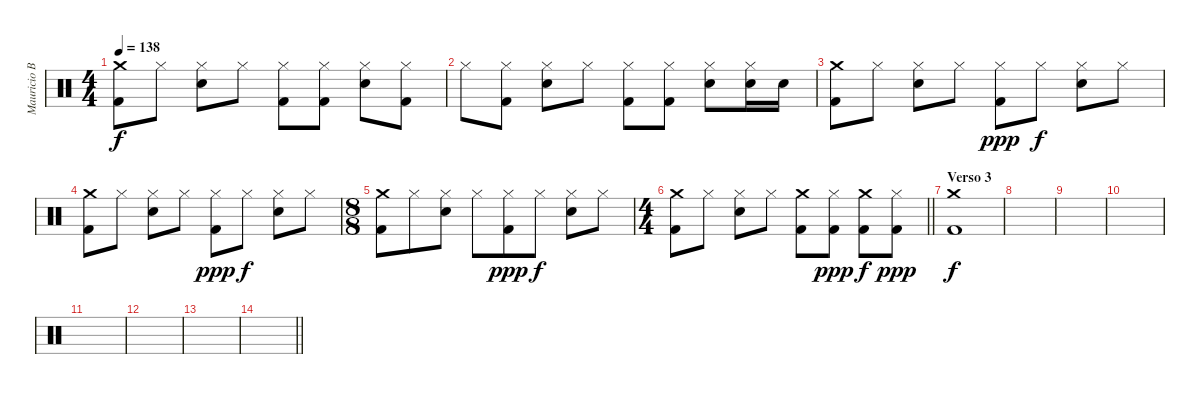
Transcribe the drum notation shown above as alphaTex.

\track ("Mauricio Basualto" "Mauricio B") {instrument percussion}
\staff {score}
\articulation defaults
\ts (4 4)
\tempo 138
\clef neutral
\ks c
("Crash medium (hit)" "Kick (hit) 2").8{dy f} "Hi-Hat (closed)".8 ("Hi-Hat (closed)" "Snare (hit) 2").8 "Hi-Hat (closed)".8 ("Hi-Hat (closed)" "Kick (hit) 2").8 ("Hi-Hat (closed)" "Kick (hit) 2").8 ("Hi-Hat (closed)" "Snare (hit) 2").8 ("Hi-Hat (closed)" "Kick (hit) 2").8 |
"Hi-Hat (closed)".8 ("Hi-Hat (closed)" "Kick (hit) 2").8 ("Hi-Hat (closed)" "Snare (hit) 2").8 "Hi-Hat (closed)".8 ("Hi-Hat (closed)" "Kick (hit) 2").8 ("Hi-Hat (closed)" "Kick (hit) 2").8 ("Hi-Hat (closed)" "Snare (hit) 2").8 ("Hi-Hat (closed)" "Snare (hit) 2").16 "Snare (hit) 2".16 |
("Crash medium (hit)" "Kick (hit) 2").8 "Hi-Hat (closed)".8 ("Hi-Hat (closed)" "Snare (hit) 2").8 "Hi-Hat (closed)".8 ("Hi-Hat (closed)" "Kick (hit) 2").8{dy ppp} "Hi-Hat (closed)".8{dy f} ("Hi-Hat (closed)" "Snare (hit) 2").8 "Hi-Hat (closed)".8 |
("Crash medium (hit)" "Kick (hit) 2").8 "Hi-Hat (closed)".8 ("Hi-Hat (closed)" "Snare (hit) 2").8 "Hi-Hat (closed)".8 ("Hi-Hat (closed)" "Kick (hit) 2").8{dy ppp} "Hi-Hat (closed)".8{dy f} ("Hi-Hat (closed)" "Snare (hit) 2").8 "Hi-Hat (closed)".8 |
\ts (8 8)
("Crash medium (hit)" "Kick (hit) 2").8 "Hi-Hat (closed)".8 ("Hi-Hat (closed)" "Snare (hit) 2").8 "Hi-Hat (closed)".8 ("Hi-Hat (closed)" "Kick (hit) 2").8{dy ppp} "Hi-Hat (closed)".8{dy f} ("Hi-Hat (closed)" "Snare (hit) 2").8 "Hi-Hat (closed)".8 |
\ts (4 4)
\barLineRight lightlight
("Crash medium (hit)" "Kick (hit) 2").8 "Hi-Hat (closed)".8 ("Hi-Hat (closed)" "Snare (hit) 2").8 "Hi-Hat (closed)".8 ("Crash medium (hit)" "Kick (hit) 2").8 ("Hi-Hat (closed)" "Kick (hit) 2").8{dy ppp} ("Crash medium (hit)" "Kick (hit) 2").8{dy f} ("Hi-Hat (closed)" "Kick (hit) 2").8{dy ppp} |
\section ("" "Verso 3")
("Crash medium (hit)" "Kick (hit) 2").1{dy f} |
|
|
|
|
|
|
\barLineRight lightlight
